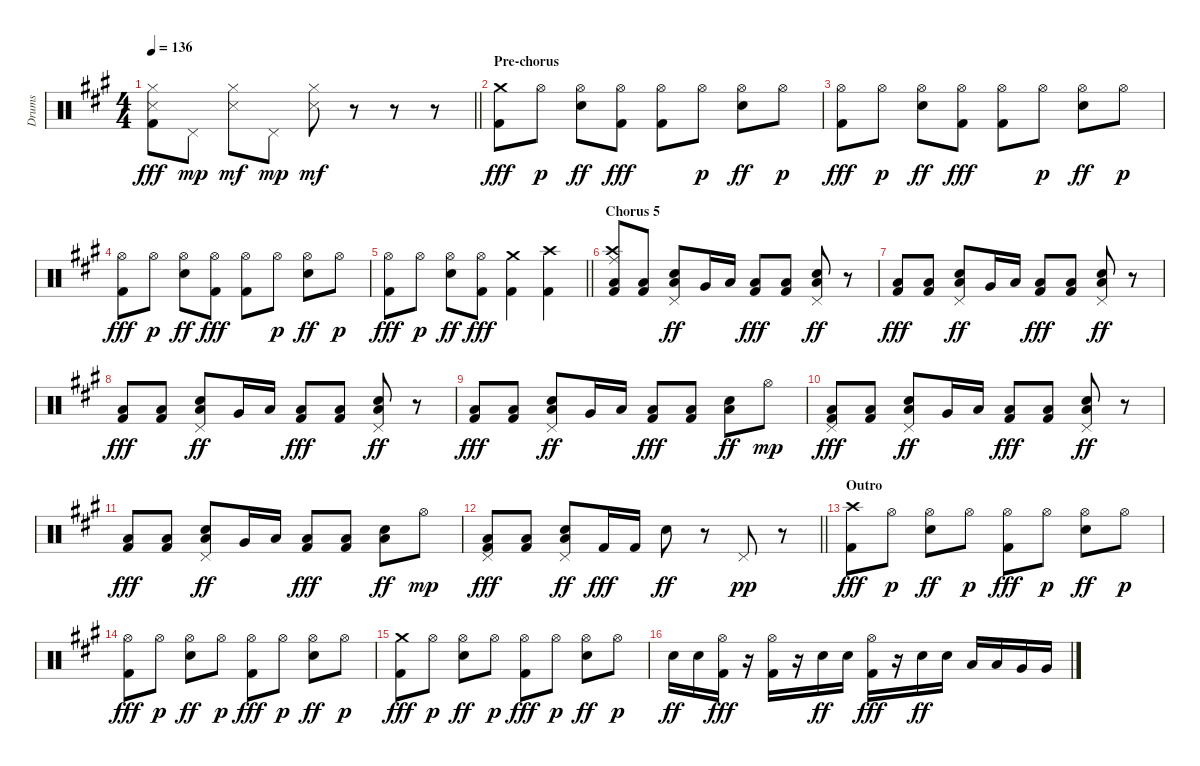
\track ("Drums" "Drums") {instrument percussion}
\staff {score}
\articulation defaults
\ts (4 4)
\tempo 136
\clef neutral
\barLineRight lightlight
\ks f#minor
("Hi-Hat (closed)" "Snare (side stick) 3" "Kick (hit) 2").8{dy fff} "Pedal Hi-Hat (hit)".8{dy mp} ("Hi-Hat (closed)" "Snare (side stick) 3").8{dy mf} "Pedal Hi-Hat (hit)".8{dy mp} ("Hi-Hat (closed)" "Snare (side stick) 3").8{dy mf} r.8 r.8 r.8 |
\section ("" "Pre-chorus")
("Crash medium (hit)" "Kick (hit) 2").8{dy fff} "Hi-Hat (open)".8{dy p} ("Hi-Hat (open)" "Electric Snare (hit)").8{dy ff} ("Hi-Hat (open)" "Kick (hit) 2").8{dy fff} ("Hi-Hat (open)" "Kick (hit) 2").8 "Hi-Hat (open)".8{dy p} ("Hi-Hat (open)" "Electric Snare (hit)").8{dy ff} "Hi-Hat (open)".8{dy p} |
("Hi-Hat (open)" "Kick (hit) 2").8{dy fff} "Hi-Hat (open)".8{dy p} ("Hi-Hat (open)" "Electric Snare (hit)").8{dy ff} ("Hi-Hat (open)" "Kick (hit) 2").8{dy fff} ("Hi-Hat (open)" "Kick (hit) 2").8 "Hi-Hat (open)".8{dy p} ("Hi-Hat (open)" "Electric Snare (hit)").8{dy ff} "Hi-Hat (open)".8{dy p} |
("Hi-Hat (open)" "Kick (hit) 2").8{dy fff} "Hi-Hat (open)".8{dy p} ("Hi-Hat (open)" "Electric Snare (hit)").8{dy ff} ("Hi-Hat (open)" "Kick (hit) 2").8{dy fff} ("Hi-Hat (open)" "Kick (hit) 2").8 "Hi-Hat (open)".8{dy p} ("Hi-Hat (open)" "Electric Snare (hit)").8{dy ff} "Hi-Hat (open)".8{dy p} |
\barLineRight lightlight
("Hi-Hat (open)" "Kick (hit) 2").8{dy fff} "Hi-Hat (open)".8{dy p} ("Hi-Hat (open)" "Electric Snare (hit)").8{dy ff} ("Hi-Hat (open)" "Kick (hit) 2").8{dy fff} ("Crash medium (hit)" "Kick (hit) 2").4 ("Crash high (hit)" "Kick (hit) 2").4 |
\section ("" "Chorus 5")
("Crash high (hit)" "Ride (middle)" "Low Floor Tom (hit)" "Kick (hit) 2").8 ("Low Floor Tom (hit)" "Kick (hit) 2").8 ("Pedal Hi-Hat (hit)" "Electric Snare (hit)" "Low Floor Tom (hit)").8{dy ff} "Very Low Tom (hit)".16 "Low Tom (hit)".16 ("Low Floor Tom (hit)" "Kick (hit) 2").8{dy fff} ("Low Floor Tom (hit)" "Kick (hit) 2").8 ("Pedal Hi-Hat (hit)" "Electric Snare (hit)" "Low Floor Tom (hit)").8{dy ff} r.8 |
("Low Floor Tom (hit)" "Kick (hit) 2").8{dy fff} ("Low Floor Tom (hit)" "Kick (hit) 2").8 ("Pedal Hi-Hat (hit)" "Electric Snare (hit)" "Low Floor Tom (hit)").8{dy ff} "Very Low Tom (hit)".16 "Low Tom (hit)".16 ("Low Floor Tom (hit)" "Kick (hit) 2").8{dy fff} ("Low Floor Tom (hit)" "Kick (hit) 2").8 ("Pedal Hi-Hat (hit)" "Electric Snare (hit)" "Low Floor Tom (hit)").8{dy ff} r.8 |
("Low Floor Tom (hit)" "Kick (hit) 2").8{dy fff} ("Low Floor Tom (hit)" "Kick (hit) 2").8 ("Pedal Hi-Hat (hit)" "Electric Snare (hit)" "Low Floor Tom (hit)").8{dy ff} "Very Low Tom (hit)".16 "Low Tom (hit)".16 ("Low Floor Tom (hit)" "Kick (hit) 2").8{dy fff} ("Low Floor Tom (hit)" "Kick (hit) 2").8 ("Pedal Hi-Hat (hit)" "Electric Snare (hit)" "Low Floor Tom (hit)").8{dy ff} r.8 |
("Low Floor Tom (hit)" "Kick (hit) 2").8{dy fff} ("Low Floor Tom (hit)" "Kick (hit) 2").8 ("Pedal Hi-Hat (hit)" "Electric Snare (hit)" "Low Floor Tom (hit)").8{dy ff} "Very Low Tom (hit)".16 "Low Tom (hit)".16 ("Low Floor Tom (hit)" "Kick (hit) 2").8{dy fff} ("Low Floor Tom (hit)" "Kick (hit) 2").8 ("Electric Snare (hit)" "Low Floor Tom (hit)").8{dy ff} "Hi-Hat (open)".8{dy mp} |
("Pedal Hi-Hat (hit)" "Low Floor Tom (hit)" "Kick (hit) 2").8{dy fff} ("Low Floor Tom (hit)" "Kick (hit) 2").8 ("Pedal Hi-Hat (hit)" "Electric Snare (hit)" "Low Floor Tom (hit)").8{dy ff} "Very Low Tom (hit)".16 "Low Tom (hit)".16 ("Low Floor Tom (hit)" "Kick (hit) 2").8{dy fff} ("Low Floor Tom (hit)" "Kick (hit) 2").8 ("Pedal Hi-Hat (hit)" "Electric Snare (hit)" "Low Floor Tom (hit)").8{dy ff} r.8 |
("Low Floor Tom (hit)" "Kick (hit) 2").8{dy fff} ("Low Floor Tom (hit)" "Kick (hit) 2").8 ("Pedal Hi-Hat (hit)" "Electric Snare (hit)" "Low Floor Tom (hit)").8{dy ff} "Very Low Tom (hit)".16 "Low Tom (hit)".16 ("Low Floor Tom (hit)" "Kick (hit) 2").8{dy fff} ("Low Floor Tom (hit)" "Kick (hit) 2").8 ("Electric Snare (hit)" "Low Floor Tom (hit)").8{dy ff} "Hi-Hat (open)".8{dy mp} |
\barLineRight lightlight
("Pedal Hi-Hat (hit)" "Low Floor Tom (hit)" "Kick (hit) 2").8{dy fff} ("Low Floor Tom (hit)" "Kick (hit) 2").8 ("Pedal Hi-Hat (hit)" "Electric Snare (hit)" "Low Floor Tom (hit)").8{dy ff} "Kick (hit) 2".16{dy fff} "Kick (hit) 2".16 "Electric Snare (hit)".8{dy ff} r.8 "Pedal Hi-Hat (hit)".8{dy pp} r.8 |
\section ("" "Outro")
("Crash high (hit)" "Kick (hit) 2").8{dy fff} "Hi-Hat (open)".8{dy p} ("Hi-Hat (open)" "Electric Snare (hit)").8{dy ff} "Hi-Hat (open)".8{dy p} ("Hi-Hat (open)" "Kick (hit) 2").8{dy fff} "Hi-Hat (open)".8{dy p} ("Hi-Hat (open)" "Electric Snare (hit)").8{dy ff} "Hi-Hat (open)".8{dy p} |
("Hi-Hat (open)" "Kick (hit) 2").8{dy fff} "Hi-Hat (open)".8{dy p} ("Hi-Hat (open)" "Electric Snare (hit)").8{dy ff} "Hi-Hat (open)".8{dy p} ("Hi-Hat (open)" "Kick (hit) 2").8{dy fff} "Hi-Hat (open)".8{dy p} ("Hi-Hat (open)" "Electric Snare (hit)").8{dy ff} "Hi-Hat (open)".8{dy p} |
("Crash medium (hit)" "Kick (hit) 2").8{dy fff} "Hi-Hat (open)".8{dy p} ("Hi-Hat (open)" "Electric Snare (hit)").8{dy ff} "Hi-Hat (open)".8{dy p} ("Hi-Hat (open)" "Kick (hit) 2").8{dy fff} "Hi-Hat (open)".8{dy p} ("Hi-Hat (open)" "Electric Snare (hit)").8{dy ff} "Hi-Hat (open)".8{dy p} |
"Electric Snare (hit)".16{dy ff} "Electric Snare (hit)".16 ("Hi-Hat (open)" "Kick (hit) 2").16{dy fff} r.16 ("Hi-Hat (open)" "Kick (hit) 2").16 r.16 "Electric Snare (hit)".16{dy ff} "Electric Snare (hit)".16 ("Hi-Hat (open)" "Kick (hit) 2").16{dy fff} r.16 "Electric Snare (hit)".16{dy ff} "Electric Snare (hit)".16 "Low Tom (hit)".16 "Low Tom (hit)".16 "Very Low Tom (hit)".16 "Very Low Tom (hit)".16
